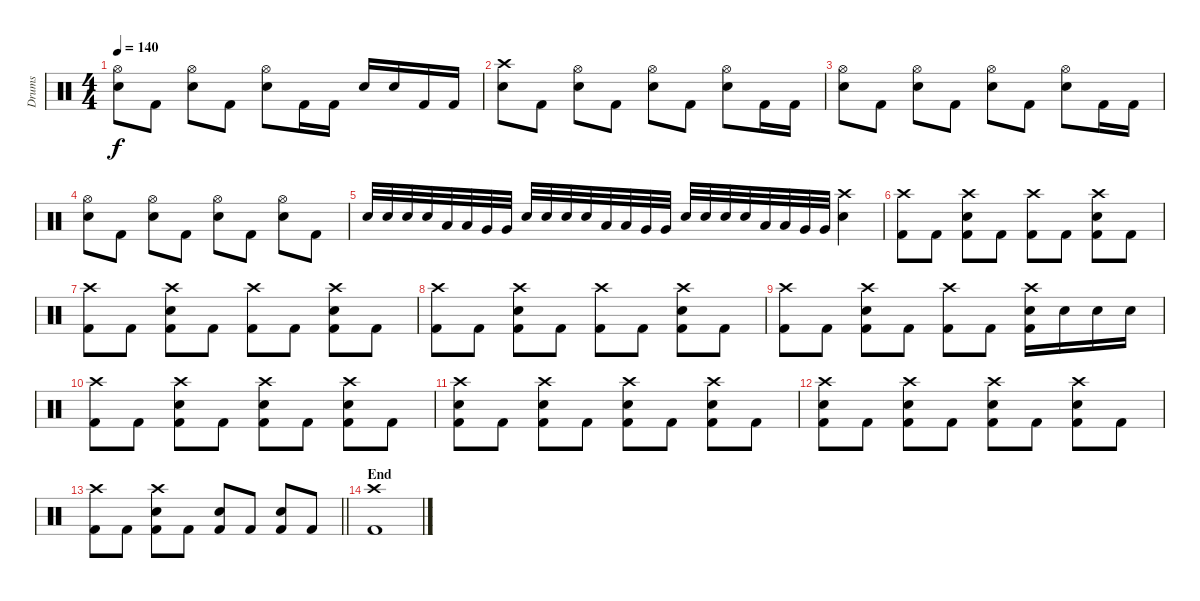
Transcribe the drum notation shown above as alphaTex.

\track ("Drums" "Drums") {instrument percussion}
\staff {score}
\articulation defaults
\ts (4 4)
\tempo 140
\clef neutral
\ks c
("Hi-Hat (open)" "Electric Snare (hit)").8{dy f} "Kick (hit) 2".8 ("Hi-Hat (open)" "Electric Snare (hit)").8 "Kick (hit) 2".8 ("Hi-Hat (open)" "Electric Snare (hit)").8 "Kick (hit) 2".16 "Kick (hit) 2".16 "Electric Snare (hit)".16 "Electric Snare (hit)".16 "Kick (hit) 2".16 "Kick (hit) 2".16 |
("Crash high (hit)" "Electric Snare (hit)").8 "Kick (hit) 2".8 ("Hi-Hat (open)" "Electric Snare (hit)").8 "Kick (hit) 2".8 ("Hi-Hat (open)" "Electric Snare (hit)").8 "Kick (hit) 2".8 ("Hi-Hat (open)" "Electric Snare (hit)").8 "Kick (hit) 2".16 "Kick (hit) 2".16 |
("Hi-Hat (open)" "Electric Snare (hit)").8 "Kick (hit) 2".8 ("Hi-Hat (open)" "Electric Snare (hit)").8 "Kick (hit) 2".8 ("Hi-Hat (open)" "Electric Snare (hit)").8 "Kick (hit) 2".8 ("Hi-Hat (open)" "Electric Snare (hit)").8 "Kick (hit) 2".16 "Kick (hit) 2".16 |
("Hi-Hat (open)" "Electric Snare (hit)").8 "Kick (hit) 2".8 ("Hi-Hat (open)" "Electric Snare (hit)").8 "Kick (hit) 2".8 ("Hi-Hat (open)" "Electric Snare (hit)").8 "Kick (hit) 2".8 ("Hi-Hat (open)" "Electric Snare (hit)").8 "Kick (hit) 2".8 |
"Electric Snare (hit)".32 "Electric Snare (hit)".32 "Electric Snare (hit)".32 "Electric Snare (hit)".32 "Low Tom (hit)".32 "Low Tom (hit)".32 "Very Low Tom (hit)".32 "Very Low Tom (hit)".32 "Electric Snare (hit)".32 "Electric Snare (hit)".32 "Electric Snare (hit)".32 "Electric Snare (hit)".32 "Low Tom (hit)".32 "Low Tom (hit)".32 "Very Low Tom (hit)".32 "Very Low Tom (hit)".32 "Electric Snare (hit)".32 "Electric Snare (hit)".32 "Electric Snare (hit)".32 "Electric Snare (hit)".32 "Low Tom (hit)".32 "Low Tom (hit)".32 "Very Low Tom (hit)".32 "Very Low Tom (hit)".32 ("Crash high (hit)" "Electric Snare (hit)").4 |
("Crash high (hit)" "Kick (hit) 2").8 "Kick (hit) 2".8 ("Crash high (hit)" "Electric Snare (hit)" "Kick (hit) 2").8 "Kick (hit) 2".8 ("Crash high (hit)" "Kick (hit) 2").8 "Kick (hit) 2".8 ("Crash high (hit)" "Electric Snare (hit)" "Kick (hit) 2").8 "Kick (hit) 2".8 |
("Crash high (hit)" "Kick (hit) 2").8 "Kick (hit) 2".8 ("Crash high (hit)" "Electric Snare (hit)" "Kick (hit) 2").8 "Kick (hit) 2".8 ("Crash high (hit)" "Kick (hit) 2").8 "Kick (hit) 2".8 ("Crash high (hit)" "Electric Snare (hit)" "Kick (hit) 2").8 "Kick (hit) 2".8 |
("Crash high (hit)" "Kick (hit) 2").8 "Kick (hit) 2".8 ("Crash high (hit)" "Electric Snare (hit)" "Kick (hit) 2").8 "Kick (hit) 2".8 ("Crash high (hit)" "Kick (hit) 2").8 "Kick (hit) 2".8 ("Crash high (hit)" "Electric Snare (hit)" "Kick (hit) 2").8 "Kick (hit) 2".8 |
("Crash high (hit)" "Kick (hit) 2").8 "Kick (hit) 2".8 ("Crash high (hit)" "Electric Snare (hit)" "Kick (hit) 2").8 "Kick (hit) 2".8 ("Crash high (hit)" "Kick (hit) 2").8 "Kick (hit) 2".8 ("Crash high (hit)" "Electric Snare (hit)" "Kick (hit) 2").16 "Electric Snare (hit)".16 "Electric Snare (hit)".16 "Electric Snare (hit)".16 |
("Crash high (hit)" "Kick (hit) 2").8 "Kick (hit) 2".8 ("Crash high (hit)" "Electric Snare (hit)" "Kick (hit) 2").8 "Kick (hit) 2".8 ("Crash high (hit)" "Electric Snare (hit)" "Kick (hit) 2").8 "Kick (hit) 2".8 ("Crash high (hit)" "Electric Snare (hit)" "Kick (hit) 2").8 "Kick (hit) 2".8 |
("Crash high (hit)" "Electric Snare (hit)" "Kick (hit) 2").8 "Kick (hit) 2".8 ("Crash high (hit)" "Electric Snare (hit)" "Kick (hit) 2").8 "Kick (hit) 2".8 ("Crash high (hit)" "Electric Snare (hit)" "Kick (hit) 2").8 "Kick (hit) 2".8 ("Crash high (hit)" "Electric Snare (hit)" "Kick (hit) 2").8 "Kick (hit) 2".8 |
("Crash high (hit)" "Electric Snare (hit)" "Kick (hit) 2").8 "Kick (hit) 2".8 ("Crash high (hit)" "Electric Snare (hit)" "Kick (hit) 2").8 "Kick (hit) 2".8 ("Crash high (hit)" "Electric Snare (hit)" "Kick (hit) 2").8 "Kick (hit) 2".8 ("Crash high (hit)" "Electric Snare (hit)" "Kick (hit) 2").8 "Kick (hit) 2".8 |
\barLineRight lightlight
("Crash high (hit)" "Kick (hit) 2").8 "Kick (hit) 2".8 ("Crash high (hit)" "Electric Snare (hit)" "Kick (hit) 2").8 "Kick (hit) 2".8 ("Electric Snare (hit)" "Kick (hit) 2").8 "Kick (hit) 2".8 ("Electric Snare (hit)" "Kick (hit) 2").8 "Kick (hit) 2".8 |
\section ("" "End")
("Crash high (hit)" "Kick (hit) 2").1
